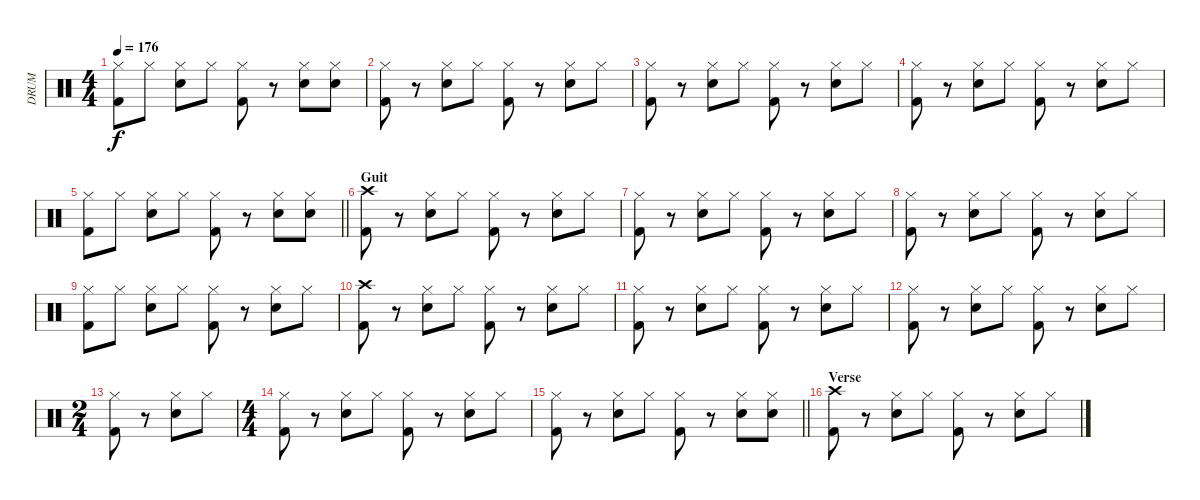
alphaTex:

\track ("DRUM" "DRUM") {instrument percussion}
\staff {score}
\articulation defaults
\ts (4 4)
\tempo 176
\clef neutral
\ks c
("Hi-Hat (closed)" "Kick (hit) 2").8{dy f} "Hi-Hat (closed)".8 ("Hi-Hat (closed)" "Electric Snare (hit)").8 "Hi-Hat (closed)".8 ("Hi-Hat (closed)" "Kick (hit) 2").8 r.8 ("Hi-Hat (closed)" "Electric Snare (hit)").8 ("Hi-Hat (closed)" "Electric Snare (hit)").8 |
("Hi-Hat (closed)" "Kick (hit) 2").8 r.8 ("Hi-Hat (closed)" "Electric Snare (hit)").8 "Hi-Hat (closed)".8 ("Hi-Hat (closed)" "Kick (hit) 2").8 r.8 ("Hi-Hat (closed)" "Electric Snare (hit)").8 "Hi-Hat (closed)".8 |
("Hi-Hat (closed)" "Kick (hit) 2").8 r.8 ("Hi-Hat (closed)" "Electric Snare (hit)").8 "Hi-Hat (closed)".8 ("Hi-Hat (closed)" "Kick (hit) 2").8 r.8 ("Hi-Hat (closed)" "Electric Snare (hit)").8 "Hi-Hat (closed)".8 |
("Hi-Hat (closed)" "Kick (hit) 2").8 r.8 ("Hi-Hat (closed)" "Electric Snare (hit)").8 "Hi-Hat (closed)".8 ("Hi-Hat (closed)" "Kick (hit) 2").8 r.8 ("Hi-Hat (closed)" "Electric Snare (hit)").8 "Hi-Hat (closed)".8 |
\barLineRight lightlight
("Hi-Hat (closed)" "Kick (hit) 2").8 "Hi-Hat (closed)".8 ("Hi-Hat (closed)" "Electric Snare (hit)").8 "Hi-Hat (closed)".8 ("Hi-Hat (closed)" "Kick (hit) 2").8 r.8 ("Hi-Hat (closed)" "Electric Snare (hit)").8 ("Hi-Hat (closed)" "Electric Snare (hit)").8 |
\section ("" "Guit")
("Crash high (hit)" "Kick (hit) 2").8 r.8 ("Hi-Hat (closed)" "Electric Snare (hit)").8 "Hi-Hat (closed)".8 ("Hi-Hat (closed)" "Kick (hit) 2").8 r.8 ("Hi-Hat (closed)" "Electric Snare (hit)").8 "Hi-Hat (closed)".8 |
("Hi-Hat (closed)" "Kick (hit) 2").8 r.8 ("Hi-Hat (closed)" "Electric Snare (hit)").8 "Hi-Hat (closed)".8 ("Hi-Hat (closed)" "Kick (hit) 2").8 r.8 ("Hi-Hat (closed)" "Electric Snare (hit)").8 "Hi-Hat (closed)".8 |
("Hi-Hat (closed)" "Kick (hit) 2").8 r.8 ("Hi-Hat (closed)" "Electric Snare (hit)").8 "Hi-Hat (closed)".8 ("Hi-Hat (closed)" "Kick (hit) 2").8 r.8 ("Hi-Hat (closed)" "Electric Snare (hit)").8 "Hi-Hat (closed)".8 |
("Hi-Hat (closed)" "Kick (hit) 2").8 "Hi-Hat (closed)".8 ("Hi-Hat (closed)" "Electric Snare (hit)").8 "Hi-Hat (closed)".8 ("Hi-Hat (closed)" "Kick (hit) 2").8 r.8 ("Hi-Hat (closed)" "Electric Snare (hit)").8 "Hi-Hat (closed)".8 |
("Crash high (hit)" "Kick (hit) 2").8 r.8 ("Hi-Hat (closed)" "Electric Snare (hit)").8 "Hi-Hat (closed)".8 ("Hi-Hat (closed)" "Kick (hit) 2").8 r.8 ("Hi-Hat (closed)" "Electric Snare (hit)").8 "Hi-Hat (closed)".8 |
("Hi-Hat (closed)" "Kick (hit) 2").8 r.8 ("Hi-Hat (closed)" "Electric Snare (hit)").8 "Hi-Hat (closed)".8 ("Hi-Hat (closed)" "Kick (hit) 2").8 r.8 ("Hi-Hat (closed)" "Electric Snare (hit)").8 "Hi-Hat (closed)".8 |
("Hi-Hat (closed)" "Kick (hit) 2").8 r.8 ("Hi-Hat (closed)" "Electric Snare (hit)").8 "Hi-Hat (closed)".8 ("Hi-Hat (closed)" "Kick (hit) 2").8 r.8 ("Hi-Hat (closed)" "Electric Snare (hit)").8 "Hi-Hat (closed)".8 |
\ts (2 4)
("Hi-Hat (closed)" "Kick (hit) 2").8 r.8 ("Hi-Hat (closed)" "Electric Snare (hit)").8 "Hi-Hat (closed)".8 |
\ts (4 4)
("Hi-Hat (closed)" "Kick (hit) 2").8 r.8 ("Hi-Hat (closed)" "Electric Snare (hit)").8 "Hi-Hat (closed)".8 ("Hi-Hat (closed)" "Kick (hit) 2").8 r.8 ("Hi-Hat (closed)" "Electric Snare (hit)").8 "Hi-Hat (closed)".8 |
\barLineRight lightlight
("Hi-Hat (closed)" "Kick (hit) 2").8 r.8 ("Hi-Hat (closed)" "Electric Snare (hit)").8 "Hi-Hat (closed)".8 ("Hi-Hat (closed)" "Kick (hit) 2").8 r.8 ("Hi-Hat (closed)" "Electric Snare (hit)").8 ("Hi-Hat (closed)" "Electric Snare (hit)").8 |
\section ("" "Verse")
("Crash high (hit)" "Kick (hit) 2").8 r.8 ("Hi-Hat (closed)" "Electric Snare (hit)").8 "Hi-Hat (closed)".8 ("Hi-Hat (closed)" "Kick (hit) 2").8 r.8 ("Hi-Hat (closed)" "Electric Snare (hit)").8 "Hi-Hat (closed)".8
